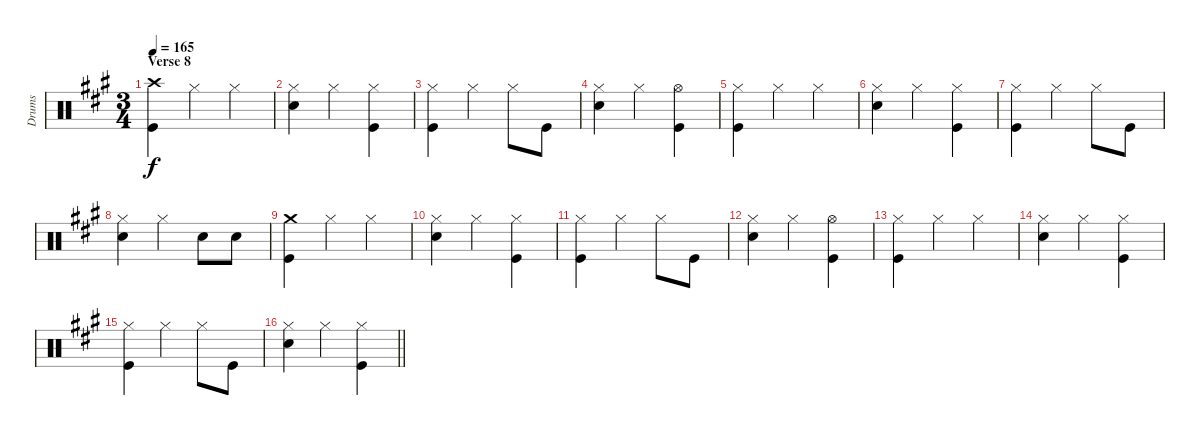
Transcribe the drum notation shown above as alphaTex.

\track ("Drums" "Drums") {instrument percussion}
\staff {score}
\articulation defaults
\ts (3 4)
\section ("" "Verse 8")
\tempo 165
\clef neutral
\ks a
("Crash high (hit)" "Kick (hit)").4{dy f} "Hi-Hat (closed)".4 "Hi-Hat (closed)".4 |
("Hi-Hat (closed)" "Snare (hit) 2").4 "Hi-Hat (closed)".4 ("Hi-Hat (closed)" "Kick (hit)").4 |
("Hi-Hat (closed)" "Kick (hit)").4 "Hi-Hat (closed)".4 "Hi-Hat (closed)".8 "Kick (hit)".8 |
("Hi-Hat (closed)" "Snare (hit) 2").4 "Hi-Hat (closed)".4 ("Hi-Hat (open)" "Kick (hit)").4 |
("Hi-Hat (closed)" "Kick (hit)").4 "Hi-Hat (closed)".4 "Hi-Hat (closed)".4 |
("Hi-Hat (closed)" "Snare (hit) 2").4 "Hi-Hat (closed)".4 ("Hi-Hat (closed)" "Kick (hit)").4 |
("Hi-Hat (closed)" "Kick (hit)").4 "Hi-Hat (closed)".4 "Hi-Hat (closed)".8 "Kick (hit)".8 |
("Hi-Hat (closed)" "Snare (hit) 2").4 "Hi-Hat (closed)".4 "Snare (hit) 2".8 "Snare (hit) 2".8 |
("Crash medium (hit)" "Kick (hit)").4 "Hi-Hat (closed)".4 "Hi-Hat (closed)".4 |
("Hi-Hat (closed)" "Snare (hit) 2").4 "Hi-Hat (closed)".4 ("Hi-Hat (closed)" "Kick (hit)").4 |
("Hi-Hat (closed)" "Kick (hit)").4 "Hi-Hat (closed)".4 "Hi-Hat (closed)".8 "Kick (hit)".8 |
("Hi-Hat (closed)" "Snare (hit) 2").4 "Hi-Hat (closed)".4 ("Hi-Hat (open)" "Kick (hit)").4 |
("Hi-Hat (closed)" "Kick (hit)").4 "Hi-Hat (closed)".4 "Hi-Hat (closed)".4 |
("Hi-Hat (closed)" "Snare (hit) 2").4 "Hi-Hat (closed)".4 ("Hi-Hat (closed)" "Kick (hit)").4 |
("Hi-Hat (closed)" "Kick (hit)").4 "Hi-Hat (closed)".4 "Hi-Hat (closed)".8 "Kick (hit)".8 |
\barLineRight lightlight
("Hi-Hat (closed)" "Snare (hit) 2").4 "Hi-Hat (closed)".4 ("Hi-Hat (closed)" "Kick (hit)").4
